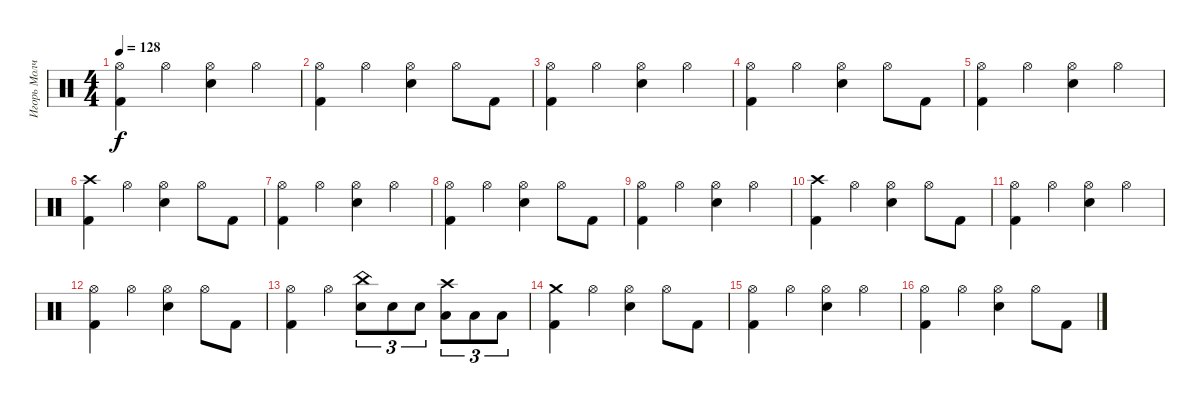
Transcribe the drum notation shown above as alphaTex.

\track ("Игорь Молчанов" "Игорь Молч") {instrument percussion}
\staff {score}
\articulation defaults
\ts (4 4)
\tempo 128
\clef neutral
\ks c
("Hi-Hat (open)" "Kick (hit) 2").4{dy f} "Hi-Hat (open)".4 ("Snare (hit) 2" "Hi-Hat (open)").4 "Hi-Hat (open)".4 |
("Hi-Hat (open)" "Kick (hit) 2").4 "Hi-Hat (open)".4 ("Snare (hit) 2" "Hi-Hat (open)").4 "Hi-Hat (open)".8 "Kick (hit) 2".8 |
("Hi-Hat (open)" "Kick (hit) 2").4 "Hi-Hat (open)".4 ("Snare (hit) 2" "Hi-Hat (open)").4 "Hi-Hat (open)".4 |
("Hi-Hat (open)" "Kick (hit) 2").4 "Hi-Hat (open)".4 ("Snare (hit) 2" "Hi-Hat (open)").4 "Hi-Hat (open)".8 "Kick (hit) 2".8 |
("Hi-Hat (open)" "Kick (hit) 2").4 "Hi-Hat (open)".4 ("Snare (hit) 2" "Hi-Hat (open)").4 "Hi-Hat (open)".4 |
("Kick (hit) 2" "Crash high (hit)").4 "Hi-Hat (open)".4 ("Snare (hit) 2" "Hi-Hat (open)").4 "Hi-Hat (open)".8 "Kick (hit) 2".8 |
("Hi-Hat (open)" "Kick (hit) 2").4 "Hi-Hat (open)".4 ("Snare (hit) 2" "Hi-Hat (open)").4 "Hi-Hat (open)".4 |
("Hi-Hat (open)" "Kick (hit) 2").4 "Hi-Hat (open)".4 ("Snare (hit) 2" "Hi-Hat (open)").4 "Hi-Hat (open)".8 "Kick (hit) 2".8 |
("Hi-Hat (open)" "Kick (hit) 2").4 "Hi-Hat (open)".4 ("Snare (hit) 2" "Hi-Hat (open)").4 "Hi-Hat (open)".4 |
("Kick (hit) 2" "Crash high (hit)").4 "Hi-Hat (open)".4 ("Snare (hit) 2" "Hi-Hat (open)").4 "Hi-Hat (open)".8 "Kick (hit) 2".8 |
("Hi-Hat (open)" "Kick (hit) 2").4 "Hi-Hat (open)".4 ("Snare (hit) 2" "Hi-Hat (open)").4 "Hi-Hat (open)".4 |
("Hi-Hat (open)" "Kick (hit) 2").4 "Hi-Hat (open)".4 ("Snare (hit) 2" "Hi-Hat (open)").4 "Hi-Hat (open)".8 "Kick (hit) 2".8 |
("Hi-Hat (open)" "Kick (hit) 2").4 "Hi-Hat (open)".4 ("Snare (hit) 2" "China (hit)").8{tu (3 2)} "Snare (hit) 2".8{tu (3 2)} "Snare (hit) 2".8{tu (3 2)} ("Low Tom (hit)" "Crash high (hit)").8{tu (3 2)} "Low Tom (hit)".8{tu (3 2)} "Low Tom (hit)".8{tu (3 2)} |
("Kick (hit) 2" "Crash medium (hit)").4 "Hi-Hat (open)".4 ("Snare (hit) 2" "Hi-Hat (open)").4 "Hi-Hat (open)".8 "Kick (hit) 2".8 |
("Hi-Hat (open)" "Kick (hit) 2").4 "Hi-Hat (open)".4 ("Snare (hit) 2" "Hi-Hat (open)").4 "Hi-Hat (open)".4 |
("Hi-Hat (open)" "Kick (hit) 2").4 "Hi-Hat (open)".4 ("Snare (hit) 2" "Hi-Hat (open)").4 "Hi-Hat (open)".8 "Kick (hit) 2".8
